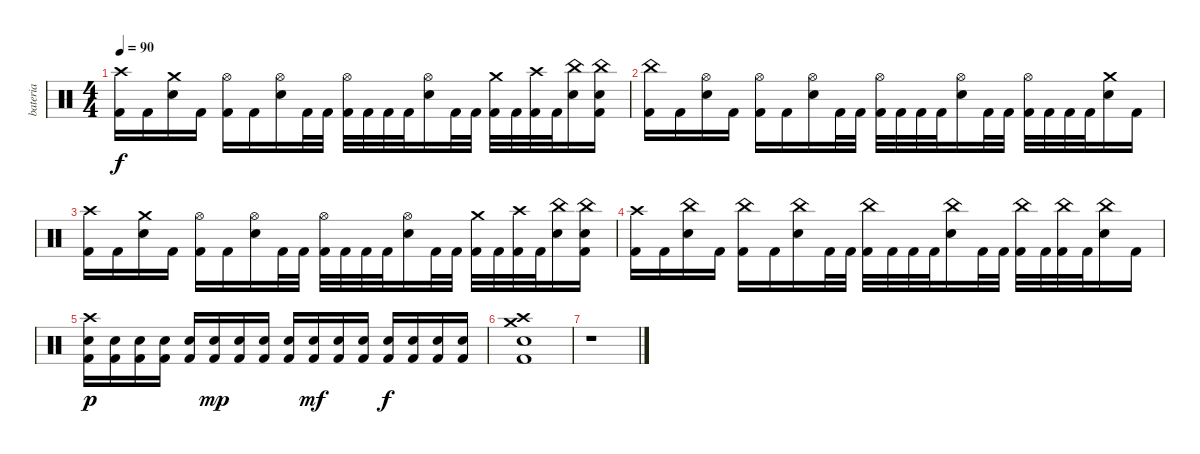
\track ("bateria" "bateria") {instrument percussion}
\staff {score}
\articulation defaults
\ts (4 4)
\tempo 90
\clef neutral
\ks c
("Crash high (hit)" "Kick (hit) 2").16{dy f} "Kick (hit) 2".16 ("Crash medium (hit)" "Snare (hit) 2").16 "Kick (hit) 2".16 ("Hi-Hat (open)" "Kick (hit) 2").16 "Kick (hit) 2".16 ("Hi-Hat (open)" "Snare (hit) 2").16 "Kick (hit) 2".32 "Kick (hit) 2".32 ("Hi-Hat (open)" "Kick (hit) 2").32 "Kick (hit) 2".32 "Kick (hit) 2".32 "Kick (hit) 2".32 ("Hi-Hat (open)" "Snare (hit) 2").16 "Kick (hit) 2".32 "Kick (hit) 2".32 ("Crash medium (hit)" "Kick (hit) 2").32 "Kick (hit) 2".32 ("Crash high (hit)" "Kick (hit) 2").32 "Kick (hit) 2".32 ("China (hit)" "Snare (hit) 2").16 ("China (hit)" "Snare (hit) 2" "Kick (hit) 2").16 |
("China (hit)" "Kick (hit) 2").16 "Kick (hit) 2".16 ("Hi-Hat (open)" "Snare (hit) 2").16 "Kick (hit) 2".16 ("Hi-Hat (open)" "Kick (hit) 2").16 "Kick (hit) 2".16 ("Hi-Hat (open)" "Snare (hit) 2").16 "Kick (hit) 2".32 "Kick (hit) 2".32 ("Hi-Hat (open)" "Kick (hit) 2").32 "Kick (hit) 2".32 "Kick (hit) 2".32 "Kick (hit) 2".32 ("Hi-Hat (open)" "Snare (hit) 2").16 "Kick (hit) 2".32 "Kick (hit) 2".32 ("Hi-Hat (open)" "Kick (hit) 2").32 "Kick (hit) 2".32 "Kick (hit) 2".32 "Kick (hit) 2".32 ("Crash medium (hit)" "Snare (hit) 2").16 "Kick (hit) 2".16 |
("Crash high (hit)" "Kick (hit) 2").16 "Kick (hit) 2".16 ("Crash medium (hit)" "Snare (hit) 2").16 "Kick (hit) 2".16 ("Hi-Hat (open)" "Kick (hit) 2").16 "Kick (hit) 2".16 ("Hi-Hat (open)" "Snare (hit) 2").16 "Kick (hit) 2".32 "Kick (hit) 2".32 ("Hi-Hat (open)" "Kick (hit) 2").32 "Kick (hit) 2".32 "Kick (hit) 2".32 "Kick (hit) 2".32 ("Hi-Hat (open)" "Snare (hit) 2").16 "Kick (hit) 2".32 "Kick (hit) 2".32 ("Crash medium (hit)" "Kick (hit) 2").32 "Kick (hit) 2".32 ("Crash high (hit)" "Kick (hit) 2").32 "Kick (hit) 2".32 ("China (hit)" "Snare (hit) 2").16 ("China (hit)" "Snare (hit) 2" "Kick (hit) 2").16 |
("Crash high (hit)" "Kick (hit) 2").16 "Kick (hit) 2".16 ("China (hit)" "Snare (hit) 2").16 "Kick (hit) 2".16 ("China (hit)" "Kick (hit) 2").16 "Kick (hit) 2".16 ("China (hit)" "Snare (hit) 2").16 "Kick (hit) 2".32 "Kick (hit) 2".32 ("China (hit)" "Kick (hit) 2").32 "Kick (hit) 2".32 "Kick (hit) 2".32 "Kick (hit) 2".32 ("China (hit)" "Snare (hit) 2").16 "Kick (hit) 2".32 "Kick (hit) 2".32 ("China (hit)" "Kick (hit) 2").32 "Kick (hit) 2".32 ("China (hit)" "Kick (hit) 2").32 "Kick (hit) 2".32 ("China (hit)" "Snare (hit) 2").16 "Kick (hit) 2".16 |
("Crash high (hit)" "Snare (hit) 2" "Kick (hit) 2").16{dy p} ("Snare (hit) 2" "Kick (hit) 2").16 ("Snare (hit) 2" "Kick (hit) 2").16 ("Snare (hit) 2" "Kick (hit) 2").16 ("Snare (hit) 2" "Kick (hit) 2").16 ("Snare (hit) 2" "Kick (hit) 2").16{dy mp} ("Snare (hit) 2" "Kick (hit) 2").16 ("Snare (hit) 2" "Kick (hit) 2").16 ("Snare (hit) 2" "Kick (hit) 2").16 ("Snare (hit) 2" "Kick (hit) 2").16{dy mf} ("Snare (hit) 2" "Kick (hit) 2").16 ("Snare (hit) 2" "Kick (hit) 2").16 ("Snare (hit) 2" "Kick (hit) 2").16{dy f} ("Snare (hit) 2" "Kick (hit) 2").16 ("Snare (hit) 2" "Kick (hit) 2").16 ("Snare (hit) 2" "Kick (hit) 2").16 |
("Crash high (hit)" "Crash medium (hit)" "Snare (hit) 2" "Kick (hit) 2").1 |
r.1
